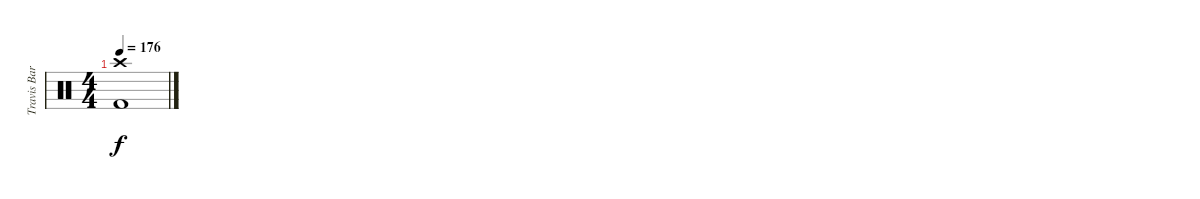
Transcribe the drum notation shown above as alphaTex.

\track ("Travis Barker - Drums" "Travis Bar") {instrument percussion}
\staff {score}
\articulation defaults
\ts (4 4)
\tempo 176
\clef neutral
\ks c
("Crash high (hit)" "Kick (hit) 2").1{dy f}
